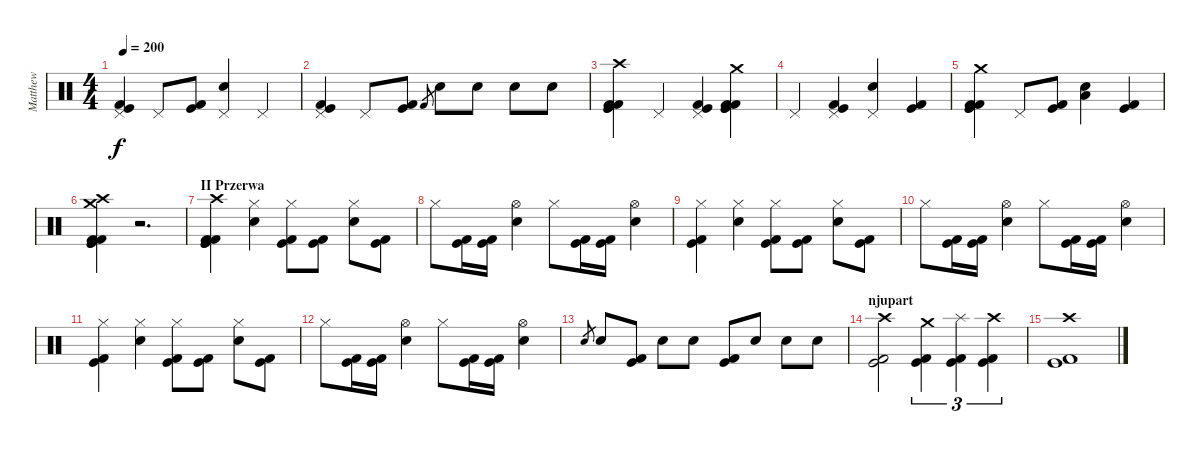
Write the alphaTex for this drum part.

\track ("Matthew" "Matthew") {instrument percussion}
\staff {score}
\articulation defaults
\ts (4 4)
\tempo 200
\clef neutral
\ks c
("Kick (hit) 2" "Kick (hit)" "Pedal Hi-Hat (hit)").4{dy f} "Pedal Hi-Hat (hit)".8 ("Kick (hit) 2" "Kick (hit)").8 ("Pedal Hi-Hat (hit)" "Snare (hit) 2").4 "Pedal Hi-Hat (hit)".4 |
("Kick (hit) 2" "Kick (hit)" "Pedal Hi-Hat (hit)").4 "Pedal Hi-Hat (hit)".8 ("Kick (hit) 2" "Kick (hit)").8 "Kick (hit) 2".8{gr} "Snare (hit) 2".8 "Snare (hit) 2".8 "Snare (hit) 2".8 "Snare (hit) 2".8 |
("Kick (hit) 2" "Kick (hit)" "Kick (hit) 2" "Kick (hit)" "Crash high (hit)").4 "Pedal Hi-Hat (hit)".4 ("Pedal Hi-Hat (hit)" "Kick (hit)" "Kick (hit) 2").4 ("Kick (hit) 2" "Kick (hit)" "Kick (hit)" "Kick (hit) 2" "Crash medium (hit)").4 |
"Pedal Hi-Hat (hit)".4 ("Pedal Hi-Hat (hit)" "Kick (hit) 2" "Kick (hit)").4 ("Snare (hit) 2" "Pedal Hi-Hat (hit)").4 ("Kick (hit)" "Kick (hit) 2").4 |
("Kick (hit)" "Kick (hit)" "Kick (hit) 2" "Kick (hit) 2" "Crash medium (hit)").4 "Pedal Hi-Hat (hit)".8 ("Kick (hit) 2" "Kick (hit)").8 ("Snare (hit) 2" "Low Tom (hit)").4 ("Kick (hit) 2" "Kick (hit)").4 |
("Kick (hit)" "Kick (hit) 2" "Kick (hit)" "Kick (hit) 2" "Crash high (hit)" "Crash medium (hit)").4 r.2{d} |
\section ("" "II Przerwa")
("Crash high (hit)" "Kick (hit) 2" "Kick (hit)" "Kick (hit)" "Kick (hit) 2").4 ("Hi-Hat (closed)" "Snare (hit) 2").4 ("Hi-Hat (closed)" "Kick (hit) 2" "Kick (hit)").8 ("Kick (hit) 2" "Kick (hit)").8 ("Snare (hit) 2" "Hi-Hat (closed)").8 ("Kick (hit) 2" "Kick (hit)").8 |
"Hi-Hat (closed)".8 ("Kick (hit) 2" "Kick (hit)").16 ("Kick (hit) 2" "Kick (hit)").16 ("Hi-Hat (open)" "Snare (hit) 2").4 "Hi-Hat (closed)".8 ("Kick (hit) 2" "Kick (hit)").16 ("Kick (hit) 2" "Kick (hit)").16 ("Snare (hit) 2" "Hi-Hat (open)").4 |
("Hi-Hat (closed)" "Kick (hit)" "Kick (hit) 2").4 ("Hi-Hat (closed)" "Snare (hit) 2").4 ("Hi-Hat (closed)" "Kick (hit) 2" "Kick (hit)").8 ("Kick (hit) 2" "Kick (hit)").8 ("Snare (hit) 2" "Hi-Hat (closed)").8 ("Kick (hit) 2" "Kick (hit)").8 |
"Hi-Hat (closed)".8 ("Kick (hit) 2" "Kick (hit)").16 ("Kick (hit) 2" "Kick (hit)").16 ("Hi-Hat (open)" "Snare (hit) 2").4 "Hi-Hat (closed)".8 ("Kick (hit) 2" "Kick (hit)").16 ("Kick (hit) 2" "Kick (hit)").16 ("Snare (hit) 2" "Hi-Hat (open)").4 |
("Hi-Hat (closed)" "Kick (hit)" "Kick (hit) 2").4 ("Hi-Hat (closed)" "Snare (hit) 2").4 ("Hi-Hat (closed)" "Kick (hit) 2" "Kick (hit)").8 ("Kick (hit) 2" "Kick (hit)").8 ("Snare (hit) 2" "Hi-Hat (closed)").8 ("Kick (hit) 2" "Kick (hit)").8 |
"Hi-Hat (closed)".8 ("Kick (hit) 2" "Kick (hit)").16 ("Kick (hit) 2" "Kick (hit)").16 ("Hi-Hat (open)" "Snare (hit) 2").4 "Hi-Hat (closed)".8 ("Kick (hit) 2" "Kick (hit)").16 ("Kick (hit) 2" "Kick (hit)").16 ("Snare (hit) 2" "Hi-Hat (open)").4 |
"Snare (hit) 2".8{gr} "Snare (hit) 2".8 ("Kick (hit) 2" "Kick (hit)").8 "Snare (hit) 2".8 "Snare (hit) 2".8 ("Kick (hit) 2" "Kick (hit)").8 "Snare (hit) 2".8 "Snare (hit) 2".8 "Snare (hit) 2".8 |
\section ("" "njupart")
("Kick (hit) 2" "Kick (hit)" "Crash high (hit)").2 ("Kick (hit) 2" "Kick (hit)" "Crash medium (hit)").4{tu (3 2)} ("Kick (hit)" "Kick (hit) 2" "Splash (hit)").4{tu (3 2)} ("Kick (hit) 2" "Kick (hit)" "Crash high (hit)").4{tu (3 2)} |
("Kick (hit) 2" "Kick (hit)" "Crash high (hit)").1
